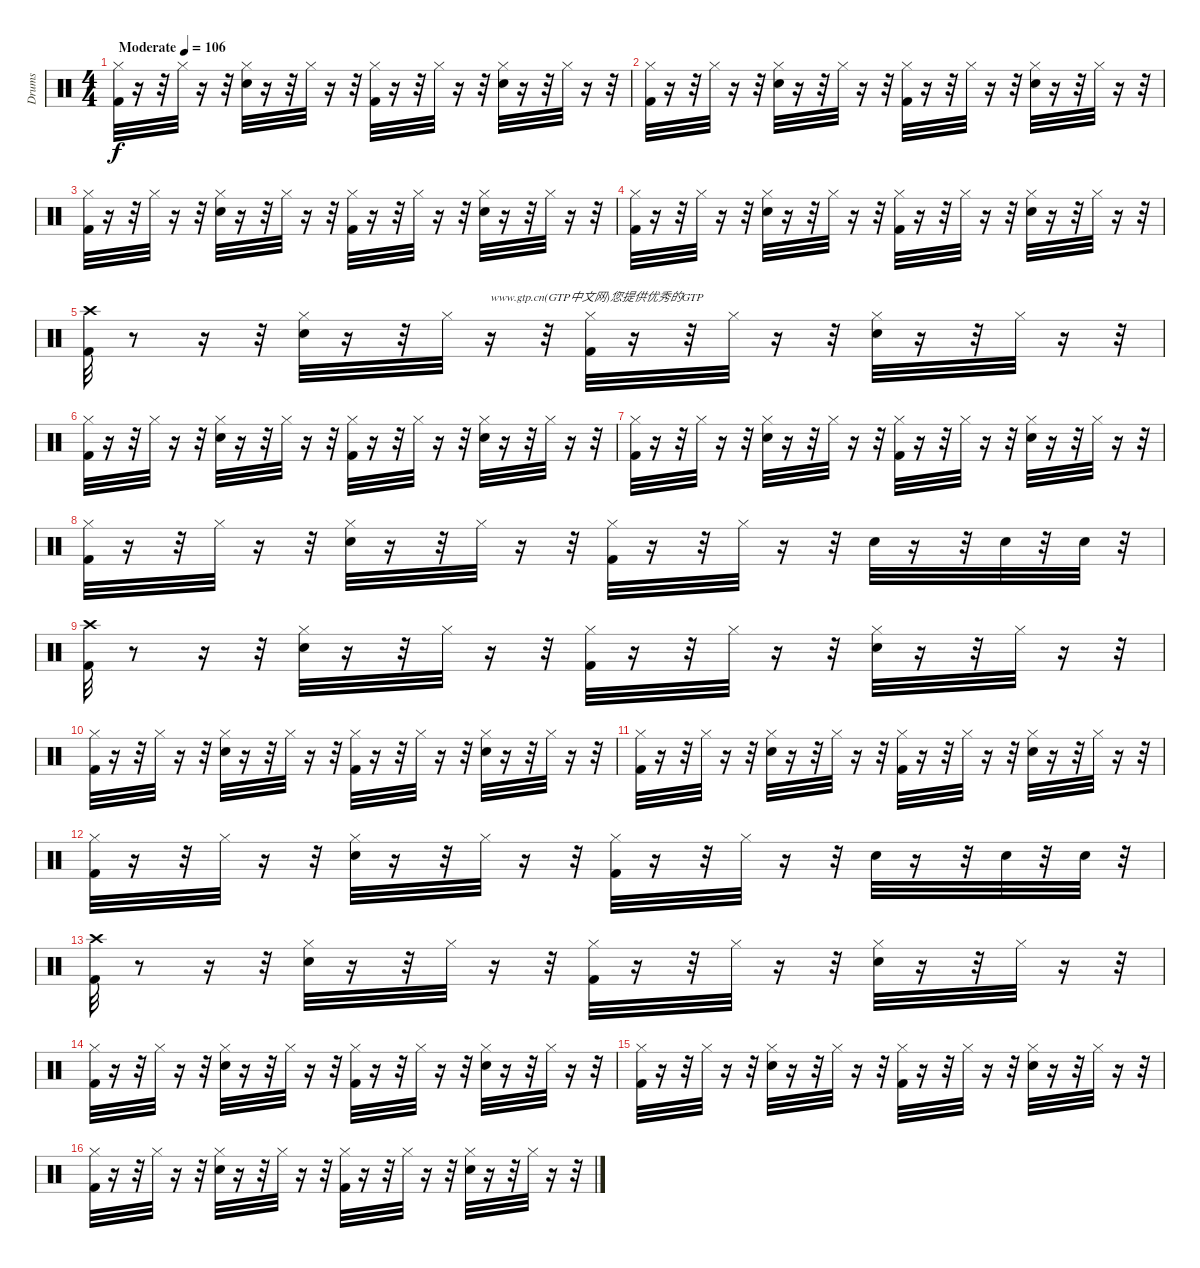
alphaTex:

\track ("Drums" "Drums") {instrument percussion}
\staff {score}
\articulation defaults
\ts (4 4)
\tempo (106 "Moderate")
\clef neutral
\ks c
("Hi-Hat (closed)" "Kick (hit) 2").32{dy f} r.16 r.32 "Hi-Hat (closed)".32 r.16 r.32 ("Hi-Hat (closed)" "Snare (hit) 2").32 r.16 r.32 "Hi-Hat (closed)".32 r.16 r.32 ("Hi-Hat (closed)" "Kick (hit) 2").32 r.16 r.32 "Hi-Hat (closed)".32 r.16 r.32 ("Hi-Hat (closed)" "Snare (hit) 2").32 r.16 r.32 "Hi-Hat (closed)".32 r.16 r.32 |
("Hi-Hat (closed)" "Kick (hit) 2").32 r.16 r.32 "Hi-Hat (closed)".32 r.16 r.32 ("Hi-Hat (closed)" "Snare (hit) 2").32 r.16 r.32 "Hi-Hat (closed)".32 r.16 r.32 ("Hi-Hat (closed)" "Kick (hit) 2").32 r.16 r.32 "Hi-Hat (closed)".32 r.16 r.32 ("Hi-Hat (closed)" "Snare (hit) 2").32 r.16 r.32 "Hi-Hat (closed)".32 r.16 r.32 |
("Hi-Hat (closed)" "Kick (hit) 2").32 r.16 r.32 "Hi-Hat (closed)".32 r.16 r.32 ("Hi-Hat (closed)" "Snare (hit) 2").32 r.16 r.32 "Hi-Hat (closed)".32 r.16 r.32 ("Hi-Hat (closed)" "Kick (hit) 2").32 r.16 r.32 "Hi-Hat (closed)".32 r.16 r.32 ("Hi-Hat (closed)" "Snare (hit) 2").32 r.16 r.32 "Hi-Hat (closed)".32 r.16 r.32 |
("Hi-Hat (closed)" "Kick (hit) 2").32 r.16 r.32 "Hi-Hat (closed)".32 r.16 r.32 ("Hi-Hat (closed)" "Snare (hit) 2").32 r.16 r.32 "Hi-Hat (closed)".32 r.16 r.32 ("Hi-Hat (closed)" "Kick (hit) 2").32 r.16 r.32 "Hi-Hat (closed)".32 r.16 r.32 ("Hi-Hat (closed)" "Snare (hit) 2").32 r.16 r.32 "Hi-Hat (closed)".32 r.16 r.32 |
("Crash high (hit)" "Kick (hit) 2").32 r.8 r.16 r.32 ("Hi-Hat (closed)" "Snare (hit) 2").32 r.16 r.32 "Hi-Hat (closed)".32 r.16{txt "www.gtp.cn(GTP中文网)您提供优秀的GTP"} r.32 ("Hi-Hat (closed)" "Kick (hit) 2").32 r.16 r.32 "Hi-Hat (closed)".32 r.16 r.32 ("Hi-Hat (closed)" "Snare (hit) 2").32 r.16 r.32 "Hi-Hat (closed)".32 r.16 r.32 |
("Hi-Hat (closed)" "Kick (hit) 2").32 r.16 r.32 "Hi-Hat (closed)".32 r.16 r.32 ("Hi-Hat (closed)" "Snare (hit) 2").32 r.16 r.32 "Hi-Hat (closed)".32 r.16 r.32 ("Hi-Hat (closed)" "Kick (hit) 2").32 r.16 r.32 "Hi-Hat (closed)".32 r.16 r.32 ("Hi-Hat (closed)" "Snare (hit) 2").32 r.16 r.32 "Hi-Hat (closed)".32 r.16 r.32 |
("Hi-Hat (closed)" "Kick (hit) 2").32 r.16 r.32 "Hi-Hat (closed)".32 r.16 r.32 ("Hi-Hat (closed)" "Snare (hit) 2").32 r.16 r.32 "Hi-Hat (closed)".32 r.16 r.32 ("Hi-Hat (closed)" "Kick (hit) 2").32 r.16 r.32 "Hi-Hat (closed)".32 r.16 r.32 ("Hi-Hat (closed)" "Snare (hit) 2").32 r.16 r.32 "Hi-Hat (closed)".32 r.16 r.32 |
("Hi-Hat (closed)" "Kick (hit) 2").32 r.16 r.32 "Hi-Hat (closed)".32 r.16 r.32 ("Hi-Hat (closed)" "Snare (hit) 2").32 r.16 r.32 "Hi-Hat (closed)".32 r.16 r.32 ("Hi-Hat (closed)" "Kick (hit) 2").32 r.16 r.32 "Hi-Hat (closed)".32 r.16 r.32 "Snare (hit) 2".32 r.16 r.32 "Snare (hit) 2".32 r.32 "Snare (hit) 2".32 r.32 |
("Crash high (hit)" "Kick (hit) 2").32 r.8 r.16 r.32 ("Hi-Hat (closed)" "Snare (hit) 2").32 r.16 r.32 "Hi-Hat (closed)".32 r.16 r.32 ("Hi-Hat (closed)" "Kick (hit) 2").32 r.16 r.32 "Hi-Hat (closed)".32 r.16 r.32 ("Hi-Hat (closed)" "Snare (hit) 2").32 r.16 r.32 "Hi-Hat (closed)".32 r.16 r.32 |
("Hi-Hat (closed)" "Kick (hit) 2").32 r.16 r.32 "Hi-Hat (closed)".32 r.16 r.32 ("Hi-Hat (closed)" "Snare (hit) 2").32 r.16 r.32 "Hi-Hat (closed)".32 r.16 r.32 ("Hi-Hat (closed)" "Kick (hit) 2").32 r.16 r.32 "Hi-Hat (closed)".32 r.16 r.32 ("Hi-Hat (closed)" "Snare (hit) 2").32 r.16 r.32 "Hi-Hat (closed)".32 r.16 r.32 |
("Hi-Hat (closed)" "Kick (hit) 2").32 r.16 r.32 "Hi-Hat (closed)".32 r.16 r.32 ("Hi-Hat (closed)" "Snare (hit) 2").32 r.16 r.32 "Hi-Hat (closed)".32 r.16 r.32 ("Hi-Hat (closed)" "Kick (hit) 2").32 r.16 r.32 "Hi-Hat (closed)".32 r.16 r.32 ("Hi-Hat (closed)" "Snare (hit) 2").32 r.16 r.32 "Hi-Hat (closed)".32 r.16 r.32 |
("Hi-Hat (closed)" "Kick (hit) 2").32 r.16 r.32 "Hi-Hat (closed)".32 r.16 r.32 ("Hi-Hat (closed)" "Snare (hit) 2").32 r.16 r.32 "Hi-Hat (closed)".32 r.16 r.32 ("Hi-Hat (closed)" "Kick (hit) 2").32 r.16 r.32 "Hi-Hat (closed)".32 r.16 r.32 "Snare (hit) 2".32 r.16 r.32 "Snare (hit) 2".32 r.32 "Snare (hit) 2".32 r.32 |
("Crash high (hit)" "Kick (hit) 2").32 r.8 r.16 r.32 ("Hi-Hat (closed)" "Snare (hit) 2").32 r.16 r.32 "Hi-Hat (closed)".32 r.16 r.32 ("Hi-Hat (closed)" "Kick (hit) 2").32 r.16 r.32 "Hi-Hat (closed)".32 r.16 r.32 ("Hi-Hat (closed)" "Snare (hit) 2").32 r.16 r.32 "Hi-Hat (closed)".32 r.16 r.32 |
("Hi-Hat (closed)" "Kick (hit) 2").32 r.16 r.32 "Hi-Hat (closed)".32 r.16 r.32 ("Hi-Hat (closed)" "Snare (hit) 2").32 r.16 r.32 "Hi-Hat (closed)".32 r.16 r.32 ("Hi-Hat (closed)" "Kick (hit) 2").32 r.16 r.32 "Hi-Hat (closed)".32 r.16 r.32 ("Hi-Hat (closed)" "Snare (hit) 2").32 r.16 r.32 "Hi-Hat (closed)".32 r.16 r.32 |
("Hi-Hat (closed)" "Kick (hit) 2").32 r.16 r.32 "Hi-Hat (closed)".32 r.16 r.32 ("Hi-Hat (closed)" "Snare (hit) 2").32 r.16 r.32 "Hi-Hat (closed)".32 r.16 r.32 ("Hi-Hat (closed)" "Kick (hit) 2").32 r.16 r.32 "Hi-Hat (closed)".32 r.16 r.32 ("Hi-Hat (closed)" "Snare (hit) 2").32 r.16 r.32 "Hi-Hat (closed)".32 r.16 r.32 |
("Hi-Hat (closed)" "Kick (hit) 2").32 r.16 r.32 "Hi-Hat (closed)".32 r.16 r.32 ("Hi-Hat (closed)" "Snare (hit) 2").32 r.16 r.32 "Hi-Hat (closed)".32 r.16 r.32 ("Hi-Hat (closed)" "Kick (hit) 2").32 r.16 r.32 "Hi-Hat (closed)".32 r.16 r.32 ("Hi-Hat (closed)" "Snare (hit) 2").32 r.16 r.32 "Hi-Hat (closed)".32 r.16 r.32
